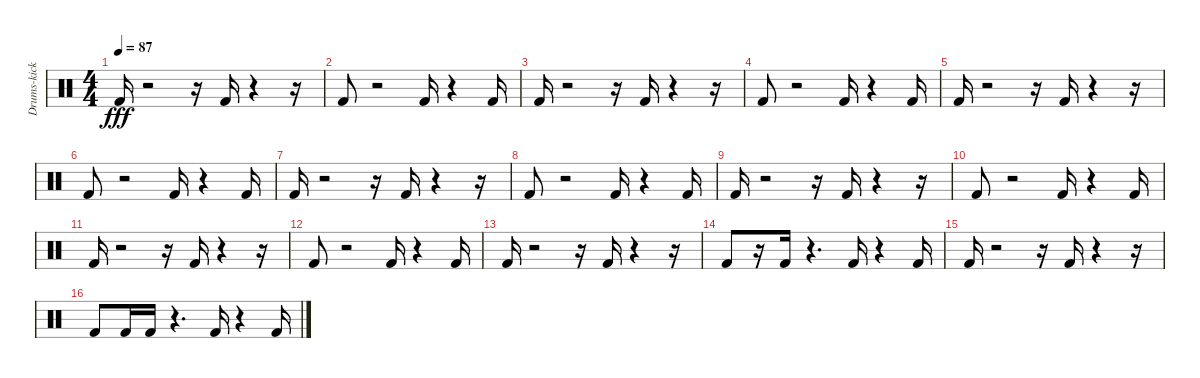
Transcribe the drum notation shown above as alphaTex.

\track ("Drums-kick drum 1" "Drums-kick") {instrument percussion}
\staff {score}
\articulation defaults
\ts (4 4)
\tempo 87
\clef neutral
\ks c "Kick (hit) 2".16{dy fff}
r.2 r.16 "Kick (hit) 2".16 r.4 r.16 |
"Kick (hit) 2".8 r.2 "Kick (hit) 2".16 r.4 "Kick (hit) 2".16 |
"Kick (hit) 2".16 r.2 r.16 "Kick (hit) 2".16 r.4 r.16 |
"Kick (hit) 2".8 r.2 "Kick (hit) 2".16 r.4 "Kick (hit) 2".16 |
"Kick (hit) 2".16 r.2 r.16 "Kick (hit) 2".16 r.4 r.16 |
"Kick (hit) 2".8 r.2 "Kick (hit) 2".16 r.4 "Kick (hit) 2".16 |
"Kick (hit) 2".16 r.2 r.16 "Kick (hit) 2".16 r.4 r.16 |
"Kick (hit) 2".8 r.2 "Kick (hit) 2".16 r.4 "Kick (hit) 2".16 |
"Kick (hit) 2".16 r.2 r.16 "Kick (hit) 2".16 r.4 r.16 |
"Kick (hit) 2".8 r.2 "Kick (hit) 2".16 r.4 "Kick (hit) 2".16 |
"Kick (hit) 2".16 r.2 r.16 "Kick (hit) 2".16 r.4 r.16 |
"Kick (hit) 2".8 r.2 "Kick (hit) 2".16 r.4 "Kick (hit) 2".16 |
"Kick (hit) 2".16 r.2 r.16 "Kick (hit) 2".16 r.4 r.16 |
"Kick (hit) 2".8 r.16 "Kick (hit) 2".16 r.4{d} "Kick (hit) 2".16 r.4 "Kick (hit) 2".16 |
"Kick (hit) 2".16 r.2 r.16 "Kick (hit) 2".16 r.4 r.16 |
"Kick (hit) 2".8 "Kick (hit) 2".16 "Kick (hit) 2".16 r.4{d} "Kick (hit) 2".16 r.4 "Kick (hit) 2".16
